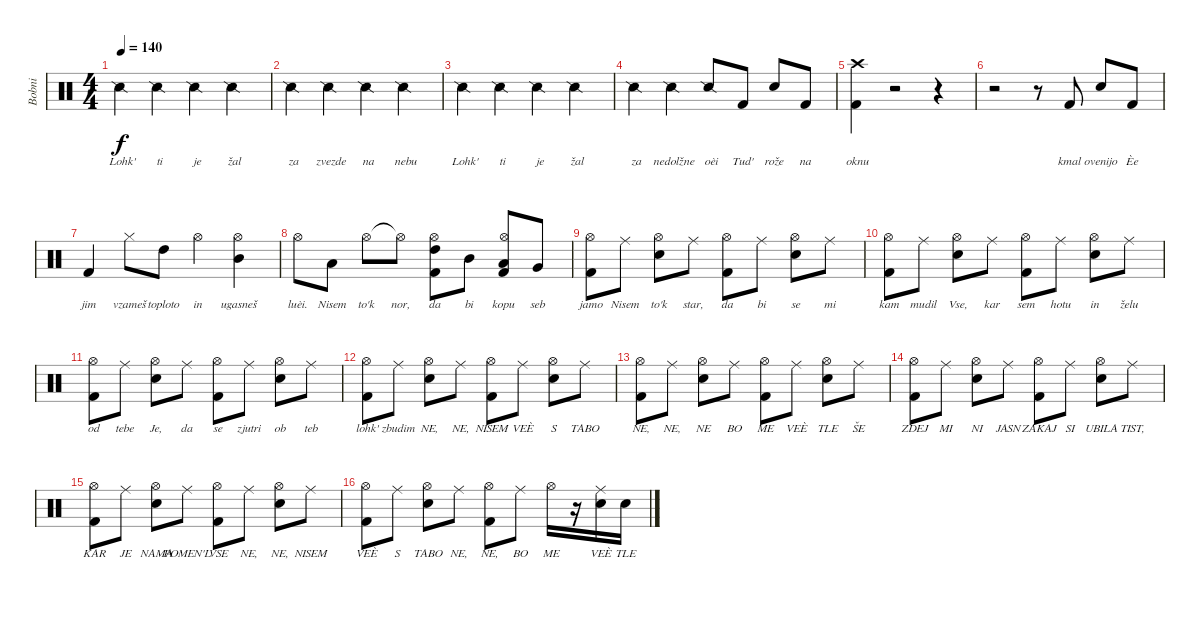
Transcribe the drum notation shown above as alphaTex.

\track ("Bobni" "Bobni") {instrument percussion}
\staff {score}
\articulation defaults
\ts (4 4)
\tempo 140
\clef neutral
\ks c "Snare (side stick) 2".4{lyrics (0 "Lohk'") lyrics (1 "") lyrics (2 "") lyrics (3 "") lyrics (4 "") dy f} "Snare (side stick) 2".4{lyrics (0 "ti") lyrics (1 "") lyrics (2 "") lyrics (3 "") lyrics (4 "")} "Snare (side stick) 2".4{lyrics (0 "je") lyrics (1 "") lyrics (2 "") lyrics (3 "") lyrics (4 "")} "Snare (side stick) 2".4{lyrics (0 "žal") lyrics (1 "") lyrics (2 "") lyrics (3 "") lyrics (4 "")}
|
"Snare (side stick) 2".4{lyrics (0 "za") lyrics (1 "") lyrics (2 "") lyrics (3 "") lyrics (4 "")} "Snare (side stick) 2".4{lyrics (0 "zvezde") lyrics (1 "") lyrics (2 "") lyrics (3 "") lyrics (4 "")} "Snare (side stick) 2".4{lyrics (0 "na") lyrics (1 "") lyrics (2 "") lyrics (3 "") lyrics (4 "")} "Snare (side stick) 2".4{lyrics (0 "nebu") lyrics (1 "") lyrics (2 "") lyrics (3 "") lyrics (4 "")} |
"Snare (side stick) 2".4{lyrics (0 "Lohk'") lyrics (1 "") lyrics (2 "") lyrics (3 "") lyrics (4 "")} "Snare (side stick) 2".4{lyrics (0 "ti") lyrics (1 "") lyrics (2 "") lyrics (3 "") lyrics (4 "")} "Snare (side stick) 2".4{lyrics (0 "je") lyrics (1 "") lyrics (2 "") lyrics (3 "") lyrics (4 "")} "Snare (side stick) 2".4{lyrics (0 "žal") lyrics (1 "") lyrics (2 "") lyrics (3 "") lyrics (4 "")} |
"Snare (side stick) 2".4{lyrics (0 "za") lyrics (1 "") lyrics (2 "") lyrics (3 "") lyrics (4 "")} "Snare (side stick) 2".4{lyrics (0 "nedolžne") lyrics (1 "") lyrics (2 "") lyrics (3 "") lyrics (4 "")} "Snare (side stick) 2".8{lyrics (0 "oèi") lyrics (1 "") lyrics (2 "") lyrics (3 "") lyrics (4 "")} "Kick (hit) 2".8{lyrics (0 "Tud'") lyrics (1 "") lyrics (2 "") lyrics (3 "") lyrics (4 "")} "Snare (hit) 2".8{lyrics (0 "rože") lyrics (1 "") lyrics (2 "") lyrics (3 "") lyrics (4 "")} "Kick (hit) 2".8{lyrics (0 "na") lyrics (1 "") lyrics (2 "") lyrics (3 "") lyrics (4 "")} |
("Crash high (hit)" "Kick (hit) 2").4{lyrics (0 "oknu") lyrics (1 "") lyrics (2 "") lyrics (3 "") lyrics (4 "")} r.2 r.4 |
r.2 r.8 "Kick (hit) 2".8{lyrics (0 "kmal") lyrics (1 "") lyrics (2 "") lyrics (3 "") lyrics (4 "")} "Snare (hit) 2".8{lyrics (0 "ovenijo") lyrics (1 "") lyrics (2 "") lyrics (3 "") lyrics (4 "")} "Kick (hit) 2".8{lyrics (0 "Èe") lyrics (1 "") lyrics (2 "") lyrics (3 "") lyrics (4 "")} |
"Kick (hit) 2".4{lyrics (0 "jim") lyrics (1 "") lyrics (2 "") lyrics (3 "") lyrics (4 "")} "Hi-Hat (closed)".8{lyrics (0 "vzameš") lyrics (1 "") lyrics (2 "") lyrics (3 "") lyrics (4 "")} "High Tom (hit)".8{lyrics (0 "toploto") lyrics (1 "") lyrics (2 "") lyrics (3 "") lyrics (4 "")} "Hi-Hat (open)".4{lyrics (0 "in") lyrics (1 "") lyrics (2 "") lyrics (3 "") lyrics (4 "")} ("Hi-Hat (open)" "Mid Tom (hit)").4{lyrics (0 "ugasneš") lyrics (1 "") lyrics (2 "") lyrics (3 "") lyrics (4 "")} |
"Hi-Hat (open)".8{lyrics (0 "luèi.") lyrics (1 "") lyrics (2 "") lyrics (3 "") lyrics (4 "")} "Low Tom (hit)".8{lyrics (0 "Nisem") lyrics (1 "") lyrics (2 "") lyrics (3 "") lyrics (4 "")} "Hi-Hat (open)".8{lyrics (0 "to'k") lyrics (1 "") lyrics (2 "") lyrics (3 "") lyrics (4 "")} "Hi-Hat (open)"{t}.8{lyrics (0 "nor,") lyrics (1 "") lyrics (2 "") lyrics (3 "") lyrics (4 "")} ("Hi-Hat (open)" "High Tom (hit)" "Kick (hit) 2").8{lyrics (0 "da") lyrics (1 "") lyrics (2 "") lyrics (3 "") lyrics (4 "")} "Mid Tom (hit)".8{lyrics (0 "bi") lyrics (1 "") lyrics (2 "") lyrics (3 "") lyrics (4 "")} ("Hi-Hat (open)" "Low Tom (hit)" "Kick (hit) 2").8{lyrics (0 "kopu") lyrics (1 "") lyrics (2 "") lyrics (3 "") lyrics (4 "")} "Very Low Tom (hit)".8{lyrics (0 "seb") lyrics (1 "") lyrics (2 "") lyrics (3 "") lyrics (4 "")} |
("Hi-Hat (open)" "Kick (hit) 2").8{lyrics (0 "jamo") lyrics (1 "") lyrics (2 "") lyrics (3 "") lyrics (4 "")} "Ride (middle)".8{lyrics (0 "Nisem") lyrics (1 "") lyrics (2 "") lyrics (3 "") lyrics (4 "")} ("Hi-Hat (open)" "Snare (hit) 2").8{lyrics (0 "to'k") lyrics (1 "") lyrics (2 "") lyrics (3 "") lyrics (4 "")} "Ride (middle)".8{lyrics (0 "star,") lyrics (1 "") lyrics (2 "") lyrics (3 "") lyrics (4 "")} ("Hi-Hat (open)" "Kick (hit) 2").8{lyrics (0 "da") lyrics (1 "") lyrics (2 "") lyrics (3 "") lyrics (4 "")} "Ride (middle)".8{lyrics (0 "bi") lyrics (1 "") lyrics (2 "") lyrics (3 "") lyrics (4 "")} ("Hi-Hat (open)" "Snare (hit) 2").8{lyrics (0 "se") lyrics (1 "") lyrics (2 "") lyrics (3 "") lyrics (4 "")} "Ride (middle)".8{lyrics (0 "mi") lyrics (1 "") lyrics (2 "") lyrics (3 "") lyrics (4 "")} |
("Hi-Hat (open)" "Kick (hit) 2").8{lyrics (0 "kam") lyrics (1 "") lyrics (2 "") lyrics (3 "") lyrics (4 "")} "Ride (middle)".8{lyrics (0 "mudil") lyrics (1 "") lyrics (2 "") lyrics (3 "") lyrics (4 "")} ("Hi-Hat (open)" "Snare (hit) 2").8{lyrics (0 "Vse,") lyrics (1 "") lyrics (2 "") lyrics (3 "") lyrics (4 "")} "Ride (middle)".8{lyrics (0 "kar") lyrics (1 "") lyrics (2 "") lyrics (3 "") lyrics (4 "")} ("Hi-Hat (open)" "Kick (hit) 2").8{lyrics (0 "sem") lyrics (1 "") lyrics (2 "") lyrics (3 "") lyrics (4 "")} "Ride (middle)".8{lyrics (0 "hotu") lyrics (1 "") lyrics (2 "") lyrics (3 "") lyrics (4 "")} ("Hi-Hat (open)" "Snare (hit) 2").8{lyrics (0 "in") lyrics (1 "") lyrics (2 "") lyrics (3 "") lyrics (4 "")} "Ride (middle)".8{lyrics (0 "želu") lyrics (1 "") lyrics (2 "") lyrics (3 "") lyrics (4 "")} |
("Hi-Hat (open)" "Kick (hit) 2").8{lyrics (0 "od") lyrics (1 "") lyrics (2 "") lyrics (3 "") lyrics (4 "")} "Ride (middle)".8{lyrics (0 "tebe") lyrics (1 "") lyrics (2 "") lyrics (3 "") lyrics (4 "")} ("Hi-Hat (open)" "Snare (hit) 2").8{lyrics (0 "Je,") lyrics (1 "") lyrics (2 "") lyrics (3 "") lyrics (4 "")} "Ride (middle)".8{lyrics (0 "da") lyrics (1 "") lyrics (2 "") lyrics (3 "") lyrics (4 "")} ("Hi-Hat (open)" "Kick (hit) 2").8{lyrics (0 "se") lyrics (1 "") lyrics (2 "") lyrics (3 "") lyrics (4 "")} "Ride (middle)".8{lyrics (0 "zjutri") lyrics (1 "") lyrics (2 "") lyrics (3 "") lyrics (4 "")} ("Hi-Hat (open)" "Snare (hit) 2").8{lyrics (0 "ob") lyrics (1 "") lyrics (2 "") lyrics (3 "") lyrics (4 "")} "Ride (middle)".8{lyrics (0 "teb") lyrics (1 "") lyrics (2 "") lyrics (3 "") lyrics (4 "")} |
("Hi-Hat (open)" "Kick (hit) 2").8{lyrics (0 "lohk'") lyrics (1 "") lyrics (2 "") lyrics (3 "") lyrics (4 "")} "Ride (middle)".8{lyrics (0 "zbudim") lyrics (1 "") lyrics (2 "") lyrics (3 "") lyrics (4 "")} ("Hi-Hat (open)" "Snare (hit) 2").8{lyrics (0 "NE,") lyrics (1 "") lyrics (2 "") lyrics (3 "") lyrics (4 "")} "Ride (middle)".8{lyrics (0 "NE,") lyrics (1 "") lyrics (2 "") lyrics (3 "") lyrics (4 "")} ("Hi-Hat (open)" "Kick (hit) 2").8{lyrics (0 "NISEM") lyrics (1 "") lyrics (2 "") lyrics (3 "") lyrics (4 "")} "Ride (middle)".8{lyrics (0 "VEÈ") lyrics (1 "") lyrics (2 "") lyrics (3 "") lyrics (4 "")} ("Hi-Hat (open)" "Snare (hit) 2").8{lyrics (0 "S") lyrics (1 "") lyrics (2 "") lyrics (3 "") lyrics (4 "")} "Ride (middle)".8{lyrics (0 "TABO") lyrics (1 "") lyrics (2 "") lyrics (3 "") lyrics (4 "")} |
("Hi-Hat (open)" "Kick (hit) 2").8{lyrics (0 "NE,") lyrics (1 "") lyrics (2 "") lyrics (3 "") lyrics (4 "")} "Ride (middle)".8{lyrics (0 "NE,") lyrics (1 "") lyrics (2 "") lyrics (3 "") lyrics (4 "")} ("Hi-Hat (open)" "Snare (hit) 2").8{lyrics (0 "NE") lyrics (1 "") lyrics (2 "") lyrics (3 "") lyrics (4 "")} "Ride (middle)".8{lyrics (0 "BO") lyrics (1 "") lyrics (2 "") lyrics (3 "") lyrics (4 "")} ("Hi-Hat (open)" "Kick (hit) 2").8{lyrics (0 "ME") lyrics (1 "") lyrics (2 "") lyrics (3 "") lyrics (4 "")} "Ride (middle)".8{lyrics (0 "VEÈ") lyrics (1 "") lyrics (2 "") lyrics (3 "") lyrics (4 "")} ("Hi-Hat (open)" "Snare (hit) 2").8{lyrics (0 "TLE") lyrics (1 "") lyrics (2 "") lyrics (3 "") lyrics (4 "")} "Ride (middle)".8{lyrics (0 "ŠE") lyrics (1 "") lyrics (2 "") lyrics (3 "") lyrics (4 "")} |
("Hi-Hat (open)" "Kick (hit) 2").8{lyrics (0 "ZDEJ") lyrics (1 "") lyrics (2 "") lyrics (3 "") lyrics (4 "")} "Ride (middle)".8{lyrics (0 "MI") lyrics (1 "") lyrics (2 "") lyrics (3 "") lyrics (4 "")} ("Hi-Hat (open)" "Snare (hit) 2").8{lyrics (0 "NI") lyrics (1 "") lyrics (2 "") lyrics (3 "") lyrics (4 "")} "Ride (middle)".8{lyrics (0 "JASN") lyrics (1 "") lyrics (2 "") lyrics (3 "") lyrics (4 "")} ("Hi-Hat (open)" "Kick (hit) 2").8{lyrics (0 "ZAKAJ") lyrics (1 "") lyrics (2 "") lyrics (3 "") lyrics (4 "")} "Ride (middle)".8{lyrics (0 "SI") lyrics (1 "") lyrics (2 "") lyrics (3 "") lyrics (4 "")} ("Hi-Hat (open)" "Snare (hit) 2").8{lyrics (0 "UBILA") lyrics (1 "") lyrics (2 "") lyrics (3 "") lyrics (4 "")} "Ride (middle)".8{lyrics (0 "TIST,") lyrics (1 "") lyrics (2 "") lyrics (3 "") lyrics (4 "")} |
("Hi-Hat (open)" "Kick (hit) 2").8{lyrics (0 "KAR") lyrics (1 "") lyrics (2 "") lyrics (3 "") lyrics (4 "")} "Ride (middle)".8{lyrics (0 "JE") lyrics (1 "") lyrics (2 "") lyrics (3 "") lyrics (4 "")} ("Hi-Hat (open)" "Snare (hit) 2").8{lyrics (0 "NAMA") lyrics (1 "") lyrics (2 "") lyrics (3 "") lyrics (4 "")} "Ride (middle)".8{lyrics (0 "POMEN'L") lyrics (1 "") lyrics (2 "") lyrics (3 "") lyrics (4 "")} ("Hi-Hat (open)" "Kick (hit) 2").8{lyrics (0 "VSE") lyrics (1 "") lyrics (2 "") lyrics (3 "") lyrics (4 "")} "Ride (middle)".8{lyrics (0 "NE,") lyrics (1 "") lyrics (2 "") lyrics (3 "") lyrics (4 "")} ("Hi-Hat (open)" "Snare (hit) 2").8{lyrics (0 "NE,") lyrics (1 "") lyrics (2 "") lyrics (3 "") lyrics (4 "")} "Ride (middle)".8{lyrics (0 "NISEM") lyrics (1 "") lyrics (2 "") lyrics (3 "") lyrics (4 "")} |
("Hi-Hat (open)" "Kick (hit) 2").8{lyrics (0 "VEÈ") lyrics (1 "") lyrics (2 "") lyrics (3 "") lyrics (4 "")} "Ride (middle)".8{lyrics (0 "S") lyrics (1 "") lyrics (2 "") lyrics (3 "") lyrics (4 "")} ("Hi-Hat (open)" "Snare (hit) 2").8{lyrics (0 "TABO") lyrics (1 "") lyrics (2 "") lyrics (3 "") lyrics (4 "")} "Ride (middle)".8{lyrics (0 "NE,") lyrics (1 "") lyrics (2 "") lyrics (3 "") lyrics (4 "")} ("Hi-Hat (open)" "Kick (hit) 2").8{lyrics (0 "NE,") lyrics (1 "") lyrics (2 "") lyrics (3 "") lyrics (4 "")} "Ride (middle)".8{lyrics (0 "BO") lyrics (1 "") lyrics (2 "") lyrics (3 "") lyrics (4 "")} "Hi-Hat (open)".16{lyrics (0 "ME") lyrics (1 "") lyrics (2 "") lyrics (3 "") lyrics (4 "")} r.16 ("Ride (middle)" "Snare (hit) 2").16{lyrics (0 "VEÈ") lyrics (1 "") lyrics (2 "") lyrics (3 "") lyrics (4 "")} "Snare (hit) 2".16{lyrics (0 "TLE") lyrics (1 "") lyrics (2 "") lyrics (3 "") lyrics (4 "")}
